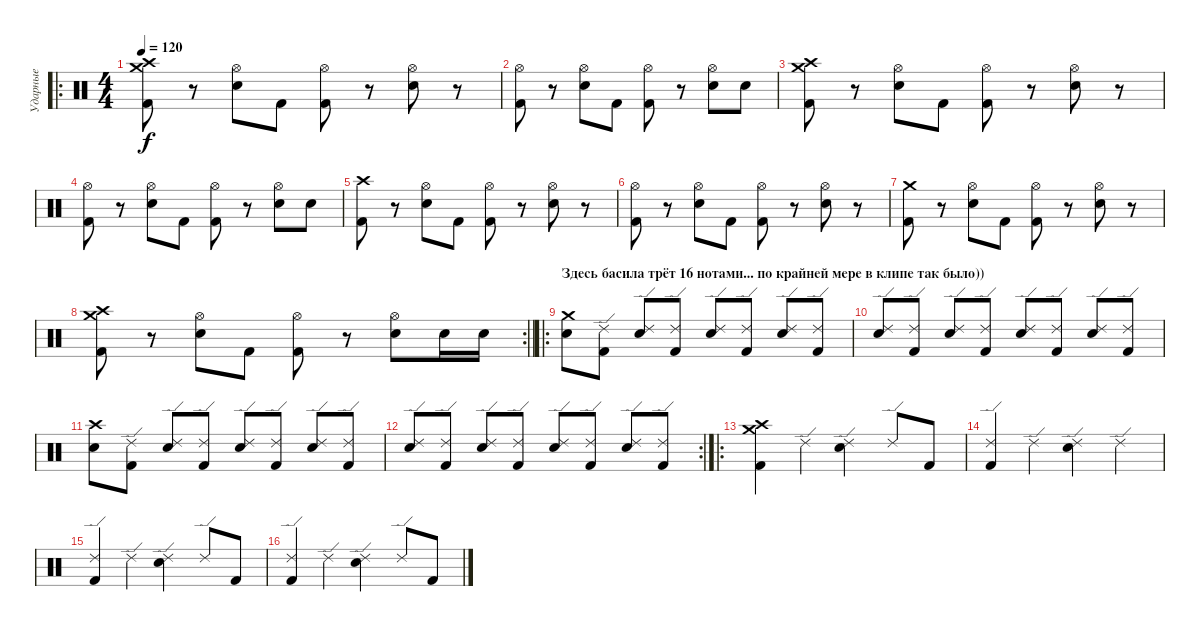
\track ("Ударные" "Ударные") {instrument percussion}
\staff {score}
\articulation defaults
\ro
\ts (4 4)
\tempo 120
\clef neutral
\ks c
("Kick (hit) 2" "Crash medium (hit)" "Crash high (hit)").8{dy f} r.8 ("Electric Snare (hit)" "Hi-Hat (open)").8 "Kick (hit) 2".8 ("Kick (hit) 2" "Hi-Hat (open)").8 r.8 ("Electric Snare (hit)" "Hi-Hat (open)").8 r.8 |
("Kick (hit) 2" "Hi-Hat (open)").8 r.8 ("Electric Snare (hit)" "Hi-Hat (open)").8 "Kick (hit) 2".8 ("Kick (hit) 2" "Hi-Hat (open)").8 r.8 ("Electric Snare (hit)" "Hi-Hat (open)").8 "Electric Snare (hit)".8 |
("Kick (hit) 2" "Crash medium (hit)" "Crash high (hit)").8 r.8 ("Electric Snare (hit)" "Hi-Hat (open)").8 "Kick (hit) 2".8 ("Kick (hit) 2" "Hi-Hat (open)").8 r.8 ("Electric Snare (hit)" "Hi-Hat (open)").8 r.8 |
("Kick (hit) 2" "Hi-Hat (open)").8 r.8 ("Electric Snare (hit)" "Hi-Hat (open)").8 "Kick (hit) 2".8 ("Kick (hit) 2" "Hi-Hat (open)").8 r.8 ("Electric Snare (hit)" "Hi-Hat (open)").8 "Electric Snare (hit)".8 |
("Kick (hit) 2" "Crash high (hit)").8 r.8 ("Electric Snare (hit)" "Hi-Hat (open)").8 "Kick (hit) 2".8 ("Kick (hit) 2" "Hi-Hat (open)").8 r.8 ("Electric Snare (hit)" "Hi-Hat (open)").8 r.8 |
("Kick (hit) 2" "Hi-Hat (open)").8 r.8 ("Electric Snare (hit)" "Hi-Hat (open)").8 "Kick (hit) 2".8 ("Kick (hit) 2" "Hi-Hat (open)").8 r.8 ("Electric Snare (hit)" "Hi-Hat (open)").8 r.8 |
("Kick (hit) 2" "Crash medium (hit)").8 r.8 ("Electric Snare (hit)" "Hi-Hat (open)").8 "Kick (hit) 2".8 ("Kick (hit) 2" "Hi-Hat (open)").8 r.8 ("Electric Snare (hit)" "Hi-Hat (open)").8 r.8 |
\rc 2
\barLineRight lightlight
("Kick (hit) 2" "Crash medium (hit)" "Crash high (hit)").8 r.8 ("Electric Snare (hit)" "Hi-Hat (open)").8 "Kick (hit) 2".8 ("Kick (hit) 2" "Hi-Hat (open)").8 r.8 ("Electric Snare (hit)" "Hi-Hat (open)").8 "Electric Snare (hit)".16 "Electric Snare (hit)".16 |
\ro
\section ("" "Здесь басила трёт 16 нотами... по крайней мере в клипе так было))")
("Electric Snare (hit)" "Crash medium (hit)").8 ("Kick (hit) 2" "Ride (edge) 2").8 ("Electric Snare (hit)" "Ride (edge) 2").8 ("Kick (hit) 2" "Ride (edge) 2").8 ("Electric Snare (hit)" "Ride (edge) 2").8 ("Kick (hit) 2" "Ride (edge) 2").8 ("Electric Snare (hit)" "Ride (edge) 2").8 ("Kick (hit) 2" "Ride (edge) 2").8 |
("Electric Snare (hit)" "Ride (edge) 2").8 ("Kick (hit) 2" "Ride (edge) 2").8 ("Electric Snare (hit)" "Ride (edge) 2").8 ("Kick (hit) 2" "Ride (edge) 2").8 ("Electric Snare (hit)" "Ride (edge) 2").8 ("Kick (hit) 2" "Ride (edge) 2").8 ("Electric Snare (hit)" "Ride (edge) 2").8 ("Kick (hit) 2" "Ride (edge) 2").8 |
("Electric Snare (hit)" "Crash high (hit)").8 ("Kick (hit) 2" "Ride (edge) 2").8 ("Electric Snare (hit)" "Ride (edge) 2").8 ("Kick (hit) 2" "Ride (edge) 2").8 ("Electric Snare (hit)" "Ride (edge) 2").8 ("Kick (hit) 2" "Ride (edge) 2").8 ("Electric Snare (hit)" "Ride (edge) 2").8 ("Kick (hit) 2" "Ride (edge) 2").8 |
\rc 2
("Electric Snare (hit)" "Ride (edge) 2").8 ("Kick (hit) 2" "Ride (edge) 2").8 ("Electric Snare (hit)" "Ride (edge) 2").8 ("Kick (hit) 2" "Ride (edge) 2").8 ("Electric Snare (hit)" "Ride (edge) 2").8 ("Kick (hit) 2" "Ride (edge) 2").8 ("Electric Snare (hit)" "Ride (edge) 2").8 ("Kick (hit) 2" "Ride (edge) 2").8 |
\ro
("Kick (hit) 2" "Crash medium (hit)" "Crash high (hit)").4 "Ride (edge) 2".4 ("Electric Snare (hit)" "Ride (edge) 2").4 "Ride (edge) 2".8 "Kick (hit) 2".8 |
("Kick (hit) 2" "Ride (edge) 2").4 "Ride (edge) 2".4 ("Electric Snare (hit)" "Ride (edge) 2").4 "Ride (edge) 2".4 |
("Kick (hit) 2" "Ride (edge) 2").4 "Ride (edge) 2".4 ("Electric Snare (hit)" "Ride (edge) 2").4 "Ride (edge) 2".8 "Kick (hit) 2".8 |
("Kick (hit) 2" "Ride (edge) 2").4 "Ride (edge) 2".4 ("Electric Snare (hit)" "Ride (edge) 2").4 "Ride (edge) 2".8 "Kick (hit) 2".8
